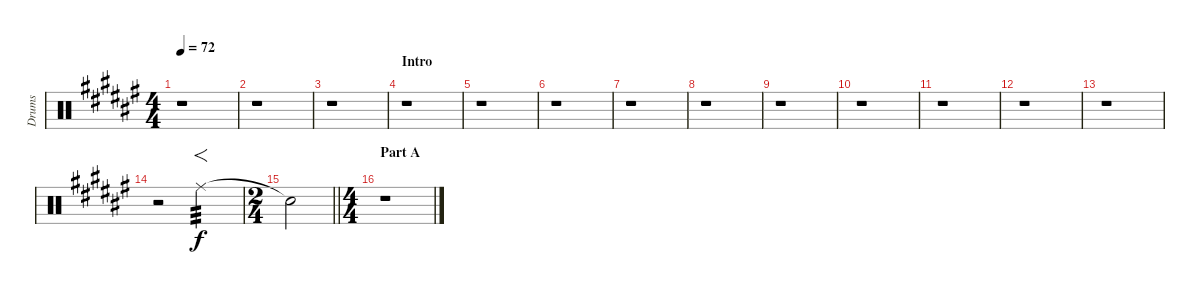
\track ("Drums" "Drums") {instrument percussion}
\staff {score}
\articulation defaults
\ts (4 4)
\tempo 72
\clef neutral
\ks f#
r.1{dy f} |
r.1 |
r.1 |
\section ("" "Intro")
r.1 |
r.1 |
r.1 |
r.1 |
r.1 |
r.1 |
r.1 |
r.1 |
r.1 |
r.1 |
r.2 "Ride (middle)".2{f tp 3} |
\ts (2 4)
\barLineRight lightlight "Snare (hit)"{t}.2
|
\ts (4 4)
\section ("" "Part A")
r.1
